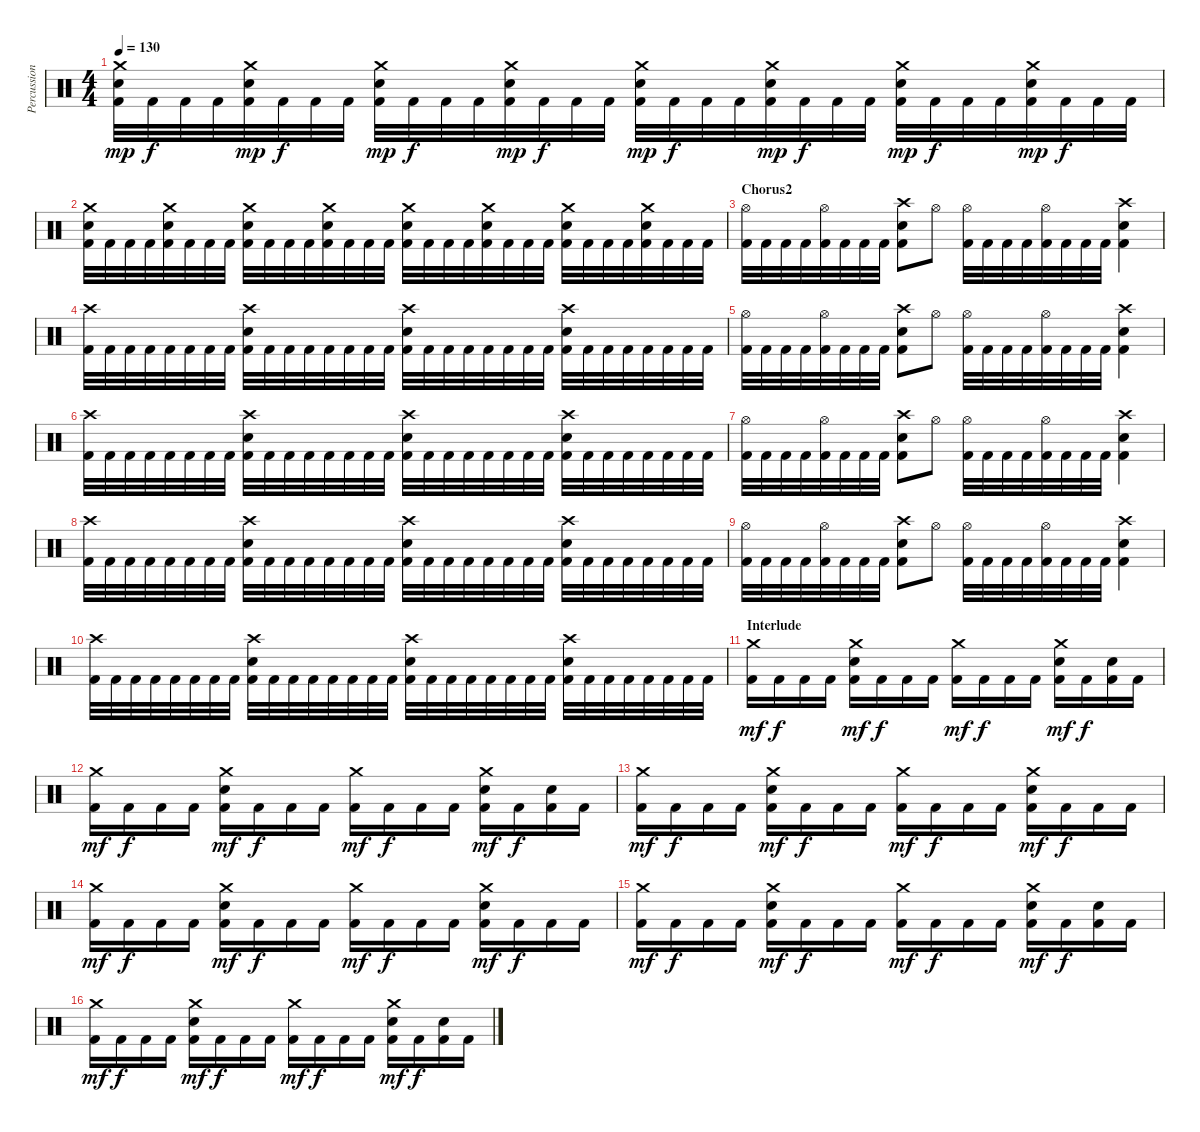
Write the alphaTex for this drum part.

\track ("Percussion" "Percussion") {instrument percussion}
\staff {score}
\articulation defaults
\ts (4 4)
\tempo 130
\clef neutral
\ks c
("Crash medium (hit)" "Electric Snare (hit)" "Kick (hit) 2").32{dy mp} "Kick (hit) 2".32{dy f} "Kick (hit) 2".32 "Kick (hit) 2".32 ("Crash medium (hit)" "Electric Snare (hit)" "Kick (hit) 2").32{dy mp} "Kick (hit) 2".32{dy f} "Kick (hit) 2".32 "Kick (hit) 2".32 ("Crash medium (hit)" "Electric Snare (hit)" "Kick (hit) 2").32{dy mp} "Kick (hit) 2".32{dy f} "Kick (hit) 2".32 "Kick (hit) 2".32 ("Crash medium (hit)" "Electric Snare (hit)" "Kick (hit) 2").32{dy mp} "Kick (hit) 2".32{dy f} "Kick (hit) 2".32 "Kick (hit) 2".32 ("Crash medium (hit)" "Electric Snare (hit)" "Kick (hit) 2").32{dy mp} "Kick (hit) 2".32{dy f} "Kick (hit) 2".32 "Kick (hit) 2".32 ("Crash medium (hit)" "Electric Snare (hit)" "Kick (hit) 2").32{dy mp} "Kick (hit) 2".32{dy f} "Kick (hit) 2".32 "Kick (hit) 2".32 ("Crash medium (hit)" "Electric Snare (hit)" "Kick (hit) 2").32{dy mp} "Kick (hit) 2".32{dy f} "Kick (hit) 2".32 "Kick (hit) 2".32 ("Crash medium (hit)" "Electric Snare (hit)" "Kick (hit) 2").32{dy mp} "Kick (hit) 2".32{dy f} "Kick (hit) 2".32 "Kick (hit) 2".32 |
("Crash medium (hit)" "Electric Snare (hit)" "Kick (hit) 2").32 "Kick (hit) 2".32 "Kick (hit) 2".32 "Kick (hit) 2".32 ("Crash medium (hit)" "Electric Snare (hit)" "Kick (hit) 2").32 "Kick (hit) 2".32 "Kick (hit) 2".32 "Kick (hit) 2".32 ("Crash medium (hit)" "Electric Snare (hit)" "Kick (hit) 2").32 "Kick (hit) 2".32 "Kick (hit) 2".32 "Kick (hit) 2".32 ("Crash medium (hit)" "Electric Snare (hit)" "Kick (hit) 2").32 "Kick (hit) 2".32 "Kick (hit) 2".32 "Kick (hit) 2".32 ("Crash medium (hit)" "Electric Snare (hit)" "Kick (hit) 2").32 "Kick (hit) 2".32 "Kick (hit) 2".32 "Kick (hit) 2".32 ("Crash medium (hit)" "Electric Snare (hit)" "Kick (hit) 2").32 "Kick (hit) 2".32 "Kick (hit) 2".32 "Kick (hit) 2".32 ("Crash medium (hit)" "Electric Snare (hit)" "Kick (hit) 2").32 "Kick (hit) 2".32 "Kick (hit) 2".32 "Kick (hit) 2".32 ("Crash medium (hit)" "Electric Snare (hit)" "Kick (hit) 2").32 "Kick (hit) 2".32 "Kick (hit) 2".32 "Kick (hit) 2".32 |
\section ("" "Chorus2")
("Hi-Hat (open)" "Kick (hit) 2").32 "Kick (hit) 2".32 "Kick (hit) 2".32 "Kick (hit) 2".32 ("Hi-Hat (open)" "Kick (hit) 2").32 "Kick (hit) 2".32 "Kick (hit) 2".32 "Kick (hit) 2".32 ("Crash high (hit)" "Electric Snare (hit)" "Kick (hit) 2").8 "Hi-Hat (open)".8 ("Hi-Hat (open)" "Kick (hit) 2").32 "Kick (hit) 2".32 "Kick (hit) 2".32 "Kick (hit) 2".32 ("Hi-Hat (open)" "Kick (hit) 2").32 "Kick (hit) 2".32 "Kick (hit) 2".32 "Kick (hit) 2".32 ("Crash high (hit)" "Electric Snare (hit)" "Kick (hit) 2").4 |
("Crash high (hit)" "Kick (hit) 2").32 "Kick (hit) 2".32 "Kick (hit) 2".32 "Kick (hit) 2".32 "Kick (hit) 2".32 "Kick (hit) 2".32 "Kick (hit) 2".32 "Kick (hit) 2".32 ("Crash high (hit)" "Electric Snare (hit)" "Kick (hit) 2").32 "Kick (hit) 2".32 "Kick (hit) 2".32 "Kick (hit) 2".32 "Kick (hit) 2".32 "Kick (hit) 2".32 "Kick (hit) 2".32 "Kick (hit) 2".32 ("Crash high (hit)" "Electric Snare (hit)" "Kick (hit) 2").32 "Kick (hit) 2".32 "Kick (hit) 2".32 "Kick (hit) 2".32 "Kick (hit) 2".32 "Kick (hit) 2".32 "Kick (hit) 2".32 "Kick (hit) 2".32 ("Crash high (hit)" "Electric Snare (hit)" "Kick (hit) 2").32 "Kick (hit) 2".32 "Kick (hit) 2".32 "Kick (hit) 2".32 "Kick (hit) 2".32 "Kick (hit) 2".32 "Kick (hit) 2".32 "Kick (hit) 2".32 |
("Hi-Hat (open)" "Kick (hit) 2").32 "Kick (hit) 2".32 "Kick (hit) 2".32 "Kick (hit) 2".32 ("Hi-Hat (open)" "Kick (hit) 2").32 "Kick (hit) 2".32 "Kick (hit) 2".32 "Kick (hit) 2".32 ("Crash high (hit)" "Electric Snare (hit)" "Kick (hit) 2").8 "Hi-Hat (open)".8 ("Hi-Hat (open)" "Kick (hit) 2").32 "Kick (hit) 2".32 "Kick (hit) 2".32 "Kick (hit) 2".32 ("Hi-Hat (open)" "Kick (hit) 2").32 "Kick (hit) 2".32 "Kick (hit) 2".32 "Kick (hit) 2".32 ("Crash high (hit)" "Electric Snare (hit)" "Kick (hit) 2").4 |
("Crash high (hit)" "Kick (hit) 2").32 "Kick (hit) 2".32 "Kick (hit) 2".32 "Kick (hit) 2".32 "Kick (hit) 2".32 "Kick (hit) 2".32 "Kick (hit) 2".32 "Kick (hit) 2".32 ("Crash high (hit)" "Electric Snare (hit)" "Kick (hit) 2").32 "Kick (hit) 2".32 "Kick (hit) 2".32 "Kick (hit) 2".32 "Kick (hit) 2".32 "Kick (hit) 2".32 "Kick (hit) 2".32 "Kick (hit) 2".32 ("Crash high (hit)" "Electric Snare (hit)" "Kick (hit) 2").32 "Kick (hit) 2".32 "Kick (hit) 2".32 "Kick (hit) 2".32 "Kick (hit) 2".32 "Kick (hit) 2".32 "Kick (hit) 2".32 "Kick (hit) 2".32 ("Crash high (hit)" "Electric Snare (hit)" "Kick (hit) 2").32 "Kick (hit) 2".32 "Kick (hit) 2".32 "Kick (hit) 2".32 "Kick (hit) 2".32 "Kick (hit) 2".32 "Kick (hit) 2".32 "Kick (hit) 2".32 |
("Hi-Hat (open)" "Kick (hit) 2").32 "Kick (hit) 2".32 "Kick (hit) 2".32 "Kick (hit) 2".32 ("Hi-Hat (open)" "Kick (hit) 2").32 "Kick (hit) 2".32 "Kick (hit) 2".32 "Kick (hit) 2".32 ("Crash high (hit)" "Electric Snare (hit)" "Kick (hit) 2").8 "Hi-Hat (open)".8 ("Hi-Hat (open)" "Kick (hit) 2").32 "Kick (hit) 2".32 "Kick (hit) 2".32 "Kick (hit) 2".32 ("Hi-Hat (open)" "Kick (hit) 2").32 "Kick (hit) 2".32 "Kick (hit) 2".32 "Kick (hit) 2".32 ("Crash high (hit)" "Electric Snare (hit)" "Kick (hit) 2").4 |
("Crash high (hit)" "Kick (hit) 2").32 "Kick (hit) 2".32 "Kick (hit) 2".32 "Kick (hit) 2".32 "Kick (hit) 2".32 "Kick (hit) 2".32 "Kick (hit) 2".32 "Kick (hit) 2".32 ("Crash high (hit)" "Electric Snare (hit)" "Kick (hit) 2").32 "Kick (hit) 2".32 "Kick (hit) 2".32 "Kick (hit) 2".32 "Kick (hit) 2".32 "Kick (hit) 2".32 "Kick (hit) 2".32 "Kick (hit) 2".32 ("Crash high (hit)" "Electric Snare (hit)" "Kick (hit) 2").32 "Kick (hit) 2".32 "Kick (hit) 2".32 "Kick (hit) 2".32 "Kick (hit) 2".32 "Kick (hit) 2".32 "Kick (hit) 2".32 "Kick (hit) 2".32 ("Crash high (hit)" "Electric Snare (hit)" "Kick (hit) 2").32 "Kick (hit) 2".32 "Kick (hit) 2".32 "Kick (hit) 2".32 "Kick (hit) 2".32 "Kick (hit) 2".32 "Kick (hit) 2".32 "Kick (hit) 2".32 |
("Hi-Hat (open)" "Kick (hit) 2").32 "Kick (hit) 2".32 "Kick (hit) 2".32 "Kick (hit) 2".32 ("Hi-Hat (open)" "Kick (hit) 2").32 "Kick (hit) 2".32 "Kick (hit) 2".32 "Kick (hit) 2".32 ("Crash high (hit)" "Electric Snare (hit)" "Kick (hit) 2").8 "Hi-Hat (open)".8 ("Hi-Hat (open)" "Kick (hit) 2").32 "Kick (hit) 2".32 "Kick (hit) 2".32 "Kick (hit) 2".32 ("Hi-Hat (open)" "Kick (hit) 2").32 "Kick (hit) 2".32 "Kick (hit) 2".32 "Kick (hit) 2".32 ("Crash high (hit)" "Electric Snare (hit)" "Kick (hit) 2").4 |
("Crash high (hit)" "Kick (hit) 2").32 "Kick (hit) 2".32 "Kick (hit) 2".32 "Kick (hit) 2".32 "Kick (hit) 2".32 "Kick (hit) 2".32 "Kick (hit) 2".32 "Kick (hit) 2".32 ("Crash high (hit)" "Electric Snare (hit)" "Kick (hit) 2").32 "Kick (hit) 2".32 "Kick (hit) 2".32 "Kick (hit) 2".32 "Kick (hit) 2".32 "Kick (hit) 2".32 "Kick (hit) 2".32 "Kick (hit) 2".32 ("Crash high (hit)" "Electric Snare (hit)" "Kick (hit) 2").32 "Kick (hit) 2".32 "Kick (hit) 2".32 "Kick (hit) 2".32 "Kick (hit) 2".32 "Kick (hit) 2".32 "Kick (hit) 2".32 "Kick (hit) 2".32 ("Crash high (hit)" "Electric Snare (hit)" "Kick (hit) 2").32 "Kick (hit) 2".32 "Kick (hit) 2".32 "Kick (hit) 2".32 "Kick (hit) 2".32 "Kick (hit) 2".32 "Kick (hit) 2".32 "Kick (hit) 2".32 |
\section ("" "Interlude")
("Crash medium (hit)" "Kick (hit) 2").16{dy mf} "Kick (hit) 2".16{dy f} "Kick (hit) 2".16 "Kick (hit) 2".16 ("Crash medium (hit)" "Electric Snare (hit)" "Kick (hit) 2").16{dy mf} "Kick (hit) 2".16{dy f} "Kick (hit) 2".16 "Kick (hit) 2".16 ("Crash medium (hit)" "Kick (hit) 2").16{dy mf} "Kick (hit) 2".16{dy f} "Kick (hit) 2".16 "Kick (hit) 2".16 ("Crash medium (hit)" "Electric Snare (hit)" "Kick (hit) 2").16{dy mf} "Kick (hit) 2".16{dy f} ("Electric Snare (hit)" "Kick (hit) 2").16 "Kick (hit) 2".16 |
("Crash medium (hit)" "Kick (hit) 2").16{dy mf} "Kick (hit) 2".16{dy f} "Kick (hit) 2".16 "Kick (hit) 2".16 ("Crash medium (hit)" "Electric Snare (hit)" "Kick (hit) 2").16{dy mf} "Kick (hit) 2".16{dy f} "Kick (hit) 2".16 "Kick (hit) 2".16 ("Crash medium (hit)" "Kick (hit) 2").16{dy mf} "Kick (hit) 2".16{dy f} "Kick (hit) 2".16 "Kick (hit) 2".16 ("Crash medium (hit)" "Electric Snare (hit)" "Kick (hit) 2").16{dy mf} "Kick (hit) 2".16{dy f} ("Electric Snare (hit)" "Kick (hit) 2").16 "Kick (hit) 2".16 |
("Crash medium (hit)" "Kick (hit) 2").16{dy mf} "Kick (hit) 2".16{dy f} "Kick (hit) 2".16 "Kick (hit) 2".16 ("Crash medium (hit)" "Electric Snare (hit)" "Kick (hit) 2").16{dy mf} "Kick (hit) 2".16{dy f} "Kick (hit) 2".16 "Kick (hit) 2".16 ("Crash medium (hit)" "Kick (hit) 2").16{dy mf} "Kick (hit) 2".16{dy f} "Kick (hit) 2".16 "Kick (hit) 2".16 ("Crash medium (hit)" "Electric Snare (hit)" "Kick (hit) 2").16{dy mf} "Kick (hit) 2".16{dy f} "Kick (hit) 2".16 "Kick (hit) 2".16 |
("Crash medium (hit)" "Kick (hit) 2").16{dy mf} "Kick (hit) 2".16{dy f} "Kick (hit) 2".16 "Kick (hit) 2".16 ("Crash medium (hit)" "Electric Snare (hit)" "Kick (hit) 2").16{dy mf} "Kick (hit) 2".16{dy f} "Kick (hit) 2".16 "Kick (hit) 2".16 ("Crash medium (hit)" "Kick (hit) 2").16{dy mf} "Kick (hit) 2".16{dy f} "Kick (hit) 2".16 "Kick (hit) 2".16 ("Crash medium (hit)" "Electric Snare (hit)" "Kick (hit) 2").16{dy mf} "Kick (hit) 2".16{dy f} "Kick (hit) 2".16 "Kick (hit) 2".16 |
("Crash medium (hit)" "Kick (hit) 2").16{dy mf} "Kick (hit) 2".16{dy f} "Kick (hit) 2".16 "Kick (hit) 2".16 ("Crash medium (hit)" "Electric Snare (hit)" "Kick (hit) 2").16{dy mf} "Kick (hit) 2".16{dy f} "Kick (hit) 2".16 "Kick (hit) 2".16 ("Crash medium (hit)" "Kick (hit) 2").16{dy mf} "Kick (hit) 2".16{dy f} "Kick (hit) 2".16 "Kick (hit) 2".16 ("Crash medium (hit)" "Electric Snare (hit)" "Kick (hit) 2").16{dy mf} "Kick (hit) 2".16{dy f} ("Electric Snare (hit)" "Kick (hit) 2").16 "Kick (hit) 2".16 |
("Crash medium (hit)" "Kick (hit) 2").16{dy mf} "Kick (hit) 2".16{dy f} "Kick (hit) 2".16 "Kick (hit) 2".16 ("Crash medium (hit)" "Electric Snare (hit)" "Kick (hit) 2").16{dy mf} "Kick (hit) 2".16{dy f} "Kick (hit) 2".16 "Kick (hit) 2".16 ("Crash medium (hit)" "Kick (hit) 2").16{dy mf} "Kick (hit) 2".16{dy f} "Kick (hit) 2".16 "Kick (hit) 2".16 ("Crash medium (hit)" "Electric Snare (hit)" "Kick (hit) 2").16{dy mf} "Kick (hit) 2".16{dy f} ("Electric Snare (hit)" "Kick (hit) 2").16 "Kick (hit) 2".16
